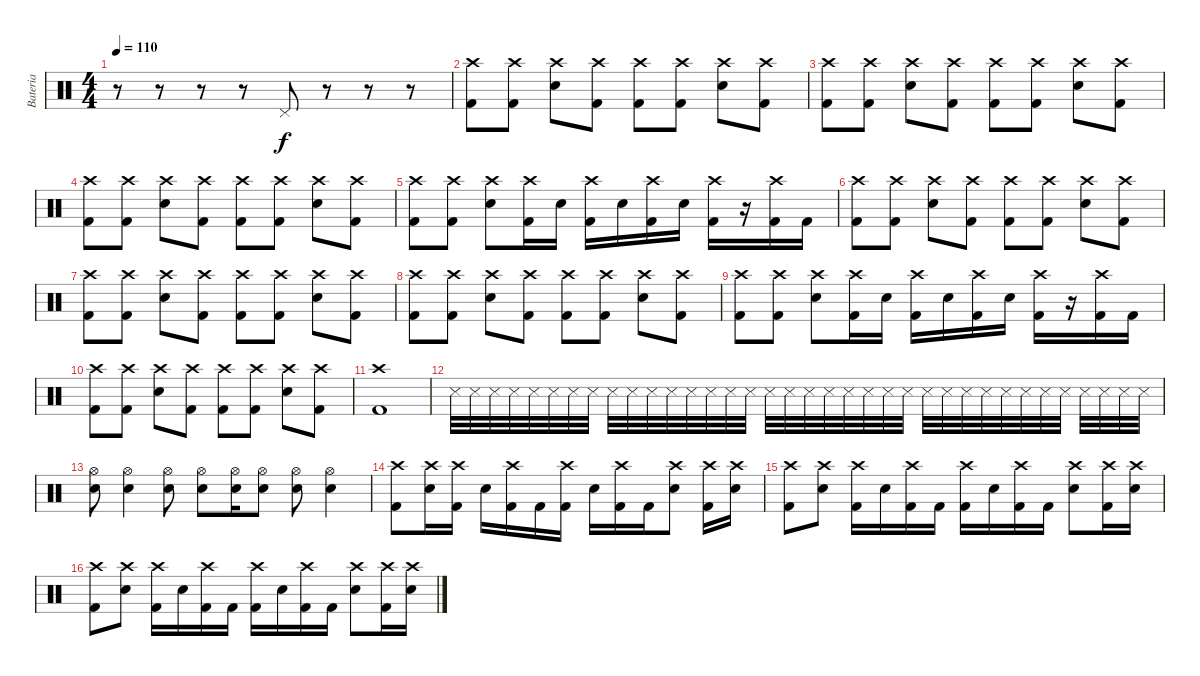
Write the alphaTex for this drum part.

\track ("Bateria" "Bateria") {instrument percussion}
\staff {score}
\articulation defaults
\ts (4 4)
\tempo 110
\clef neutral
\ks c
r.8{dy f} r.8 r.8 r.8 "Pedal Hi-Hat (hit)".8 r.8 r.8 r.8 |
("Crash high (hit)" "Kick (hit) 2").8 ("Crash high (hit)" "Kick (hit) 2").8 ("Crash high (hit)" "Snare (hit) 2").8 ("Crash high (hit)" "Kick (hit) 2").8 ("Crash high (hit)" "Kick (hit) 2").8 ("Crash high (hit)" "Kick (hit) 2").8 ("Crash high (hit)" "Snare (hit) 2").8 ("Crash high (hit)" "Kick (hit) 2").8 |
("Crash high (hit)" "Kick (hit) 2").8 ("Crash high (hit)" "Kick (hit) 2").8 ("Crash high (hit)" "Snare (hit) 2").8 ("Crash high (hit)" "Kick (hit) 2").8 ("Crash high (hit)" "Kick (hit) 2").8 ("Crash high (hit)" "Kick (hit) 2").8 ("Crash high (hit)" "Snare (hit) 2").8 ("Crash high (hit)" "Kick (hit) 2").8 |
("Crash high (hit)" "Kick (hit) 2").8 ("Crash high (hit)" "Kick (hit) 2").8 ("Crash high (hit)" "Snare (hit) 2").8 ("Crash high (hit)" "Kick (hit) 2").8 ("Crash high (hit)" "Kick (hit) 2").8 ("Crash high (hit)" "Kick (hit) 2").8 ("Crash high (hit)" "Snare (hit) 2").8 ("Crash high (hit)" "Kick (hit) 2").8 |
("Crash high (hit)" "Kick (hit) 2").8 ("Crash high (hit)" "Kick (hit) 2").8 ("Crash high (hit)" "Snare (hit) 2").8 ("Crash high (hit)" "Kick (hit) 2").16 "Snare (hit) 2".16 ("Crash high (hit)" "Kick (hit) 2").16 "Snare (hit) 2".16 ("Crash high (hit)" "Kick (hit) 2").16 "Snare (hit) 2".16 ("Crash high (hit)" "Kick (hit) 2").16 r.16 ("Crash high (hit)" "Kick (hit) 2").16 "Kick (hit) 2".16 |
("Crash high (hit)" "Kick (hit) 2").8 ("Crash high (hit)" "Kick (hit) 2").8 ("Crash high (hit)" "Snare (hit) 2").8 ("Crash high (hit)" "Kick (hit) 2").8 ("Crash high (hit)" "Kick (hit) 2").8 ("Crash high (hit)" "Kick (hit) 2").8 ("Crash high (hit)" "Snare (hit) 2").8 ("Crash high (hit)" "Kick (hit) 2").8 |
("Crash high (hit)" "Kick (hit) 2").8 ("Crash high (hit)" "Kick (hit) 2").8 ("Crash high (hit)" "Snare (hit) 2").8 ("Crash high (hit)" "Kick (hit) 2").8 ("Crash high (hit)" "Kick (hit) 2").8 ("Crash high (hit)" "Kick (hit) 2").8 ("Crash high (hit)" "Snare (hit) 2").8 ("Crash high (hit)" "Kick (hit) 2").8 |
("Crash high (hit)" "Kick (hit) 2").8 ("Crash high (hit)" "Kick (hit) 2").8 ("Crash high (hit)" "Snare (hit) 2").8 ("Crash high (hit)" "Kick (hit) 2").8 ("Crash high (hit)" "Kick (hit) 2").8 ("Crash high (hit)" "Kick (hit) 2").8 ("Crash high (hit)" "Snare (hit) 2").8 ("Crash high (hit)" "Kick (hit) 2").8 |
("Crash high (hit)" "Kick (hit) 2").8 ("Crash high (hit)" "Kick (hit) 2").8 ("Crash high (hit)" "Snare (hit) 2").8 ("Crash high (hit)" "Kick (hit) 2").16 "Snare (hit) 2".16 ("Crash high (hit)" "Kick (hit) 2").16 "Snare (hit) 2".16 ("Crash high (hit)" "Kick (hit) 2").16 "Snare (hit) 2".16 ("Crash high (hit)" "Kick (hit) 2").16 r.16 ("Crash high (hit)" "Kick (hit) 2").16 "Kick (hit) 2".16 |
("Crash high (hit)" "Kick (hit) 2").8 ("Crash high (hit)" "Kick (hit) 2").8 ("Crash high (hit)" "Snare (hit) 2").8 ("Crash high (hit)" "Kick (hit) 2").8 ("Crash high (hit)" "Kick (hit) 2").8 ("Crash high (hit)" "Kick (hit) 2").8 ("Crash high (hit)" "Snare (hit) 2").8 ("Crash high (hit)" "Kick (hit) 2").8 |
("Crash high (hit)" "Kick (hit) 2").1 |
"Metronome (hit)".32 "Snare (side stick) 3".32 "Snare (side stick) 3".32 "Snare (side stick) 3".32 "Metronome (hit)".32 "Snare (side stick) 3".32 "Snare (side stick) 3".32 "Snare (side stick) 3".32 "Metronome (hit)".32 "Metronome (hit)".32 "Snare (side stick) 3".32 "Snare (side stick) 3".32 "Snare (side stick) 3".32 "Metronome (hit)".32 "Snare (side stick) 3".32 "Snare (side stick) 3".32 "Snare (side stick) 3".32 "Metronome (hit)".32 "Metronome (hit)".32 "Snare (side stick) 3".32 "Snare (side stick) 3".32 "Snare (side stick) 3".32 "Metronome (hit)".32 "Snare (side stick) 3".32 "Snare (side stick) 3".32 "Snare (side stick) 3".32 "Metronome (hit)".32 "Metronome (hit)".32 "Snare (side stick) 3".32 "Snare (side stick) 3".32 "Snare (side stick) 3".32 "Metronome (hit)".32 "Snare (side stick) 3".32 "Snare (side stick) 3".32 "Snare (side stick) 3".32 "Metronome (hit)".32 |
("Hi-Hat (open)" "Snare (hit) 2").8 ("Hi-Hat (open)" "Snare (hit) 2").4 ("Hi-Hat (open)" "Snare (hit) 2").8 ("Hi-Hat (open)" "Snare (hit) 2").8 ("Hi-Hat (open)" "Snare (hit) 2").16 ("Hi-Hat (open)" "Snare (hit) 2").8 ("Hi-Hat (open)" "Snare (hit) 2").8 ("Hi-Hat (open)" "Snare (hit) 2").4 |
("Crash high (hit)" "Kick (hit) 2").8 ("Crash high (hit)" "Snare (hit) 2").16 ("Crash high (hit)" "Kick (hit) 2").16 "Snare (hit) 2".16 ("Crash high (hit)" "Kick (hit) 2").16 "Kick (hit) 2".16 ("Crash high (hit)" "Kick (hit) 2").16 "Snare (hit) 2".16 ("Crash high (hit)" "Kick (hit) 2").16 "Kick (hit) 2".16 ("Crash high (hit)" "Snare (hit) 2").8 ("Crash high (hit)" "Kick (hit) 2").16 ("Crash high (hit)" "Snare (hit) 2").16 |
("Crash high (hit)" "Kick (hit) 2").8 ("Crash high (hit)" "Snare (hit) 2").8 ("Crash high (hit)" "Kick (hit) 2").16 "Snare (hit) 2".16 ("Crash high (hit)" "Kick (hit) 2").16 "Kick (hit) 2".16 ("Crash high (hit)" "Kick (hit) 2").16 "Snare (hit) 2".16 ("Crash high (hit)" "Kick (hit) 2").16 "Kick (hit) 2".16 ("Crash high (hit)" "Snare (hit) 2").8 ("Crash high (hit)" "Kick (hit) 2").16 ("Crash high (hit)" "Snare (hit) 2").16 |
("Crash high (hit)" "Kick (hit) 2").8 ("Crash high (hit)" "Snare (hit) 2").8 ("Crash high (hit)" "Kick (hit) 2").16 "Snare (hit) 2".16 ("Crash high (hit)" "Kick (hit) 2").16 "Kick (hit) 2".16 ("Crash high (hit)" "Kick (hit) 2").16 "Snare (hit) 2".16 ("Crash high (hit)" "Kick (hit) 2").16 "Kick (hit) 2".16 ("Crash high (hit)" "Snare (hit) 2").8 ("Crash high (hit)" "Kick (hit) 2").16 ("Crash high (hit)" "Snare (hit) 2").16
